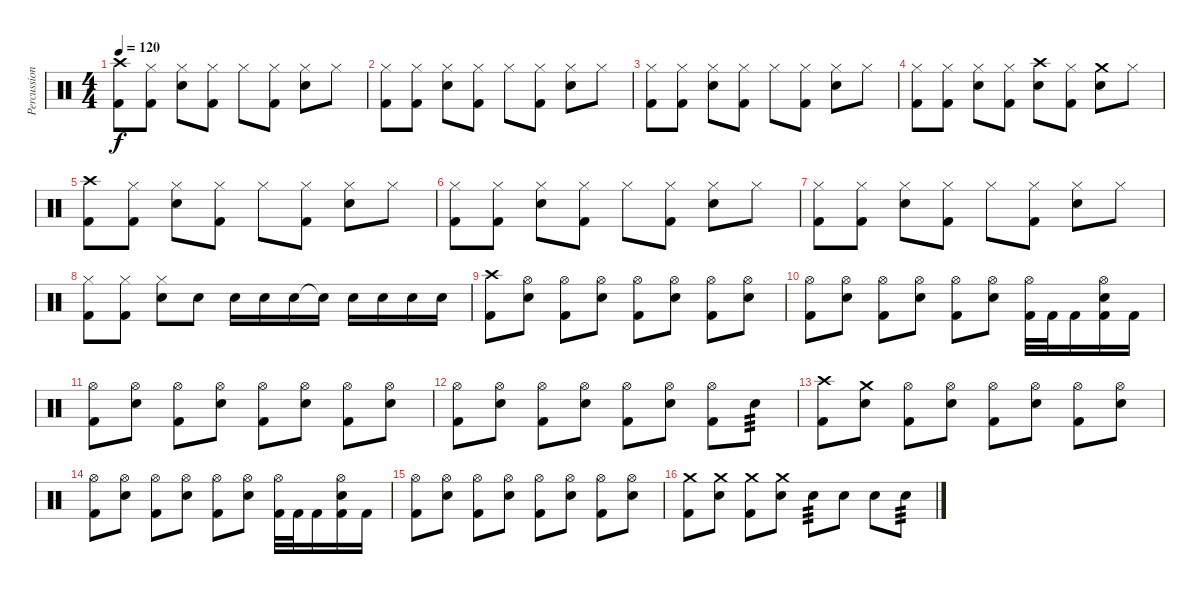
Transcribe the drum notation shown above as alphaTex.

\track ("Percussions" "Percussion") {instrument percussion}
\staff {score}
\articulation defaults
\ts (4 4)
\tempo 120
\clef neutral
\ks c
("Crash high (hit)" "Kick (hit) 2").8{dy f} ("Hi-Hat (closed)" "Kick (hit) 2").8 ("Hi-Hat (closed)" "Snare (hit) 2").8 ("Hi-Hat (closed)" "Kick (hit) 2").8 "Hi-Hat (closed)".8 ("Hi-Hat (closed)" "Kick (hit) 2").8 ("Hi-Hat (closed)" "Snare (hit) 2").8 "Hi-Hat (closed)".8 |
("Hi-Hat (closed)" "Kick (hit) 2").8 ("Hi-Hat (closed)" "Kick (hit) 2").8 ("Hi-Hat (closed)" "Snare (hit) 2").8 ("Hi-Hat (closed)" "Kick (hit) 2").8 "Hi-Hat (closed)".8 ("Hi-Hat (closed)" "Kick (hit) 2").8 ("Hi-Hat (closed)" "Snare (hit) 2").8 "Hi-Hat (closed)".8 |
("Hi-Hat (closed)" "Kick (hit) 2").8 ("Hi-Hat (closed)" "Kick (hit) 2").8 ("Hi-Hat (closed)" "Snare (hit) 2").8 ("Hi-Hat (closed)" "Kick (hit) 2").8 "Hi-Hat (closed)".8 ("Hi-Hat (closed)" "Kick (hit) 2").8 ("Hi-Hat (closed)" "Snare (hit) 2").8 "Hi-Hat (closed)".8 |
("Hi-Hat (closed)" "Kick (hit) 2").8 ("Hi-Hat (closed)" "Kick (hit) 2").8 ("Hi-Hat (closed)" "Snare (hit) 2").8 ("Hi-Hat (closed)" "Kick (hit) 2").8 ("Crash high (hit)" "Snare (hit) 2").8 ("Hi-Hat (closed)" "Kick (hit) 2").8 ("Crash medium (hit)" "Snare (hit) 2").8 "Hi-Hat (closed)".8 |
("Crash high (hit)" "Kick (hit) 2").8 ("Hi-Hat (closed)" "Kick (hit) 2").8 ("Hi-Hat (closed)" "Snare (hit) 2").8 ("Hi-Hat (closed)" "Kick (hit) 2").8 "Hi-Hat (closed)".8 ("Hi-Hat (closed)" "Kick (hit) 2").8 ("Hi-Hat (closed)" "Snare (hit) 2").8 "Hi-Hat (closed)".8 |
("Hi-Hat (closed)" "Kick (hit) 2").8 ("Hi-Hat (closed)" "Kick (hit) 2").8 ("Hi-Hat (closed)" "Snare (hit) 2").8 ("Hi-Hat (closed)" "Kick (hit) 2").8 "Hi-Hat (closed)".8 ("Hi-Hat (closed)" "Kick (hit) 2").8 ("Hi-Hat (closed)" "Snare (hit) 2").8 "Hi-Hat (closed)".8 |
("Hi-Hat (closed)" "Kick (hit) 2").8 ("Hi-Hat (closed)" "Kick (hit) 2").8 ("Hi-Hat (closed)" "Snare (hit) 2").8 ("Hi-Hat (closed)" "Kick (hit) 2").8 "Hi-Hat (closed)".8 ("Hi-Hat (closed)" "Kick (hit) 2").8 ("Hi-Hat (closed)" "Snare (hit) 2").8 "Hi-Hat (closed)".8 |
("Hi-Hat (closed)" "Kick (hit) 2").8 ("Hi-Hat (closed)" "Kick (hit) 2").8 ("Hi-Hat (closed)" "Snare (hit) 2").8 "Snare (hit) 2".8 "Snare (hit) 2".16 "Snare (hit) 2".16 "Snare (hit) 2".16 "Snare (hit) 2"{t}.16 "Snare (hit) 2".16 "Snare (hit) 2".16 "Snare (hit) 2".16 "Snare (hit) 2".16 |
("Crash high (hit)" "Kick (hit) 2").8 ("Hi-Hat (open)" "Snare (hit) 2").8 ("Hi-Hat (open)" "Kick (hit) 2").8 ("Hi-Hat (open)" "Snare (hit) 2").8 ("Hi-Hat (open)" "Kick (hit) 2").8 ("Hi-Hat (open)" "Snare (hit) 2").8 ("Hi-Hat (open)" "Kick (hit) 2").8 ("Hi-Hat (open)" "Snare (hit) 2").8 |
("Hi-Hat (open)" "Kick (hit) 2").8 ("Hi-Hat (open)" "Snare (hit) 2").8 ("Hi-Hat (open)" "Kick (hit) 2").8 ("Hi-Hat (open)" "Snare (hit) 2").8 ("Hi-Hat (open)" "Kick (hit) 2").8 ("Hi-Hat (open)" "Snare (hit) 2").8 ("Hi-Hat (open)" "Kick (hit) 2").32 "Kick (hit) 2".32 "Kick (hit) 2".16 ("Hi-Hat (open)" "Snare (hit) 2" "Kick (hit) 2").16 "Kick (hit) 2".16 |
("Hi-Hat (open)" "Kick (hit) 2").8 ("Hi-Hat (open)" "Snare (hit) 2").8 ("Hi-Hat (open)" "Kick (hit) 2").8 ("Hi-Hat (open)" "Snare (hit) 2").8 ("Hi-Hat (open)" "Kick (hit) 2").8 ("Hi-Hat (open)" "Snare (hit) 2").8 ("Hi-Hat (open)" "Kick (hit) 2").8 ("Hi-Hat (open)" "Snare (hit) 2").8 |
("Hi-Hat (open)" "Kick (hit) 2").8 ("Hi-Hat (open)" "Snare (hit) 2").8 ("Hi-Hat (open)" "Kick (hit) 2").8 ("Hi-Hat (open)" "Snare (hit) 2").8 ("Hi-Hat (open)" "Kick (hit) 2").8 ("Hi-Hat (open)" "Snare (hit) 2").8 ("Hi-Hat (open)" "Kick (hit) 2").8 "Snare (hit) 2".8{tp 3} |
("Crash high (hit)" "Kick (hit) 2").8 ("Crash medium (hit)" "Snare (hit) 2").8 ("Hi-Hat (open)" "Kick (hit) 2").8 ("Hi-Hat (open)" "Snare (hit) 2").8 ("Hi-Hat (open)" "Kick (hit) 2").8 ("Hi-Hat (open)" "Snare (hit) 2").8 ("Hi-Hat (open)" "Kick (hit) 2").8 ("Hi-Hat (open)" "Snare (hit) 2").8 |
("Hi-Hat (open)" "Kick (hit) 2").8 ("Hi-Hat (open)" "Snare (hit) 2").8 ("Hi-Hat (open)" "Kick (hit) 2").8 ("Hi-Hat (open)" "Snare (hit) 2").8 ("Hi-Hat (open)" "Kick (hit) 2").8 ("Hi-Hat (open)" "Snare (hit) 2").8 ("Hi-Hat (open)" "Kick (hit) 2").32 "Kick (hit) 2".32 "Kick (hit) 2".16 ("Hi-Hat (open)" "Snare (hit) 2" "Kick (hit) 2").16 "Kick (hit) 2".16 |
("Hi-Hat (open)" "Kick (hit) 2").8 ("Hi-Hat (open)" "Snare (hit) 2").8 ("Hi-Hat (open)" "Kick (hit) 2").8 ("Hi-Hat (open)" "Snare (hit) 2").8 ("Hi-Hat (open)" "Kick (hit) 2").8 ("Hi-Hat (open)" "Snare (hit) 2").8 ("Hi-Hat (open)" "Kick (hit) 2").8 ("Hi-Hat (open)" "Snare (hit) 2").8 |
("Crash medium (hit)" "Kick (hit) 2").8 ("Crash medium (hit)" "Snare (hit) 2").8 ("Crash medium (hit)" "Kick (hit) 2").8 ("Crash medium (hit)" "Snare (hit) 2").8 "Snare (hit) 2".8{tp 3} "Snare (hit) 2".8 "Snare (hit) 2".8 "Snare (hit) 2".8{tp 3}
